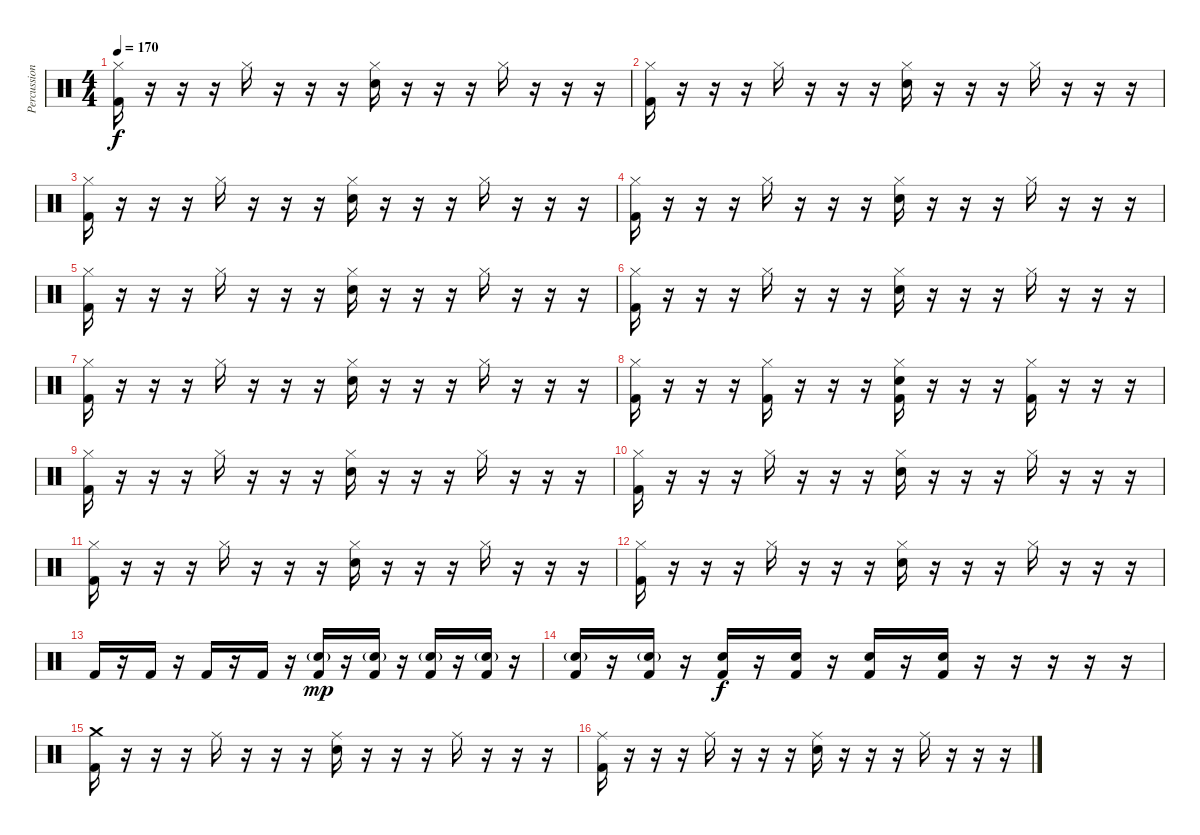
\track ("Percussion" "Percussion") {instrument percussion}
\staff {score}
\articulation defaults
\ts (4 4)
\tempo 170
\clef neutral
\ks c
("Hi-Hat (closed)" "Kick (hit) 2").16{dy f} r.16 r.16 r.16 "Hi-Hat (closed)".16 r.16 r.16 r.16 ("Hi-Hat (closed)" "Snare (hit) 2").16 r.16 r.16 r.16 "Hi-Hat (closed)".16 r.16 r.16 r.16 |
("Hi-Hat (closed)" "Kick (hit) 2").16 r.16 r.16 r.16 "Hi-Hat (closed)".16 r.16 r.16 r.16 ("Hi-Hat (closed)" "Snare (hit) 2").16 r.16 r.16 r.16 "Hi-Hat (closed)".16 r.16 r.16 r.16 |
("Hi-Hat (closed)" "Kick (hit) 2").16 r.16 r.16 r.16 "Hi-Hat (closed)".16 r.16 r.16 r.16 ("Hi-Hat (closed)" "Snare (hit) 2").16 r.16 r.16 r.16 "Hi-Hat (closed)".16 r.16 r.16 r.16 |
("Hi-Hat (closed)" "Kick (hit) 2").16 r.16 r.16 r.16 "Hi-Hat (closed)".16 r.16 r.16 r.16 ("Hi-Hat (closed)" "Snare (hit) 2").16 r.16 r.16 r.16 "Hi-Hat (closed)".16 r.16 r.16 r.16 |
("Hi-Hat (closed)" "Kick (hit) 2").16 r.16 r.16 r.16 "Hi-Hat (closed)".16 r.16 r.16 r.16 ("Hi-Hat (closed)" "Snare (hit) 2").16 r.16 r.16 r.16 "Hi-Hat (closed)".16 r.16 r.16 r.16 |
("Hi-Hat (closed)" "Kick (hit) 2").16 r.16 r.16 r.16 "Hi-Hat (closed)".16 r.16 r.16 r.16 ("Hi-Hat (closed)" "Snare (hit) 2").16 r.16 r.16 r.16 "Hi-Hat (closed)".16 r.16 r.16 r.16 |
("Hi-Hat (closed)" "Kick (hit) 2").16 r.16 r.16 r.16 "Hi-Hat (closed)".16 r.16 r.16 r.16 ("Hi-Hat (closed)" "Snare (hit) 2").16 r.16 r.16 r.16 "Hi-Hat (closed)".16 r.16 r.16 r.16 |
("Hi-Hat (closed)" "Kick (hit) 2").16 r.16 r.16 r.16 ("Hi-Hat (closed)" "Kick (hit) 2").16 r.16 r.16 r.16 ("Hi-Hat (closed)" "Snare (hit) 2" "Kick (hit) 2").16 r.16 r.16 r.16 ("Hi-Hat (closed)" "Kick (hit) 2").16 r.16 r.16 r.16 |
("Hi-Hat (closed)" "Kick (hit) 2").16 r.16 r.16 r.16 "Hi-Hat (closed)".16 r.16 r.16 r.16 ("Hi-Hat (closed)" "Snare (hit) 2").16 r.16 r.16 r.16 "Hi-Hat (closed)".16 r.16 r.16 r.16 |
("Hi-Hat (closed)" "Kick (hit) 2").16 r.16 r.16 r.16 "Hi-Hat (closed)".16 r.16 r.16 r.16 ("Hi-Hat (closed)" "Snare (hit) 2").16 r.16 r.16 r.16 "Hi-Hat (closed)".16 r.16 r.16 r.16 |
("Hi-Hat (closed)" "Kick (hit) 2").16 r.16 r.16 r.16 "Hi-Hat (closed)".16 r.16 r.16 r.16 ("Hi-Hat (closed)" "Snare (hit) 2").16 r.16 r.16 r.16 "Hi-Hat (closed)".16 r.16 r.16 r.16 |
("Hi-Hat (closed)" "Kick (hit) 2").16 r.16 r.16 r.16 "Hi-Hat (closed)".16 r.16 r.16 r.16 ("Hi-Hat (closed)" "Snare (hit) 2").16 r.16 r.16 r.16 "Hi-Hat (closed)".16 r.16 r.16 r.16 |
"Kick (hit) 2".16 r.16 "Kick (hit) 2".16 r.16 "Kick (hit) 2".16 r.16 "Kick (hit) 2".16 r.16 ("Snare (hit) 2"{g} "Kick (hit) 2").16{dy mp} r.16 ("Snare (hit) 2"{g} "Kick (hit) 2").16 r.16 ("Snare (hit) 2"{g} "Kick (hit) 2").16 r.16 ("Snare (hit) 2"{g} "Kick (hit) 2").16 r.16 |
("Snare (hit) 2"{g} "Kick (hit) 2").16 r.16 ("Snare (hit) 2"{g} "Kick (hit) 2").16 r.16 ("Snare (hit) 2" "Kick (hit) 2").16{dy f} r.16 ("Snare (hit) 2" "Kick (hit) 2").16 r.16 ("Snare (hit) 2" "Kick (hit) 2").16 r.16 ("Snare (hit) 2" "Kick (hit) 2").16 r.16 r.16 r.16 r.16 r.16 |
("Crash medium (hit)" "Kick (hit) 2").16 r.16 r.16 r.16 "Ride (middle)".16 r.16 r.16 r.16 ("Ride (middle)" "Snare (hit) 2").16 r.16 r.16 r.16 "Ride (middle)".16 r.16 r.16 r.16 |
("Ride (middle)" "Kick (hit) 2").16 r.16 r.16 r.16 "Ride (middle)".16 r.16 r.16 r.16 ("Ride (middle)" "Snare (hit) 2").16 r.16 r.16 r.16 "Ride (middle)".16 r.16 r.16 r.16
